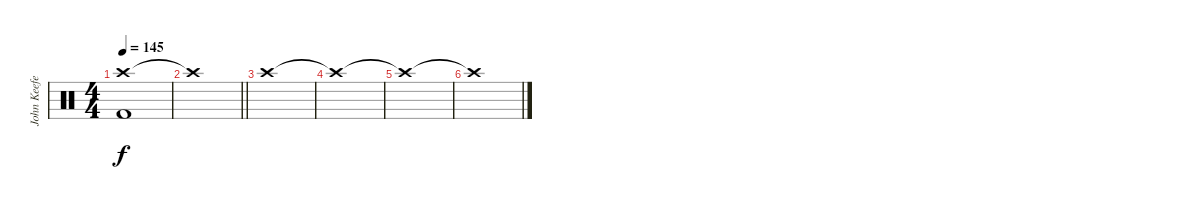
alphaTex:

\track ("John Keefe (Percussion)" "John Keefe") {instrument percussion}
\staff {score}
\articulation defaults
\ts (4 4)
\tempo 145
\clef neutral
\ks c
("Crash high (hit)" "Kick (hit) 2").1{dy f} |
\barLineRight lightlight "Crash high (hit)"{t}.1
|
"Crash high (hit)".1 |
"Crash high (hit)"{t}.1 |
"Crash high (hit)"{t}.1 |
"Crash high (hit)"{t}.1
